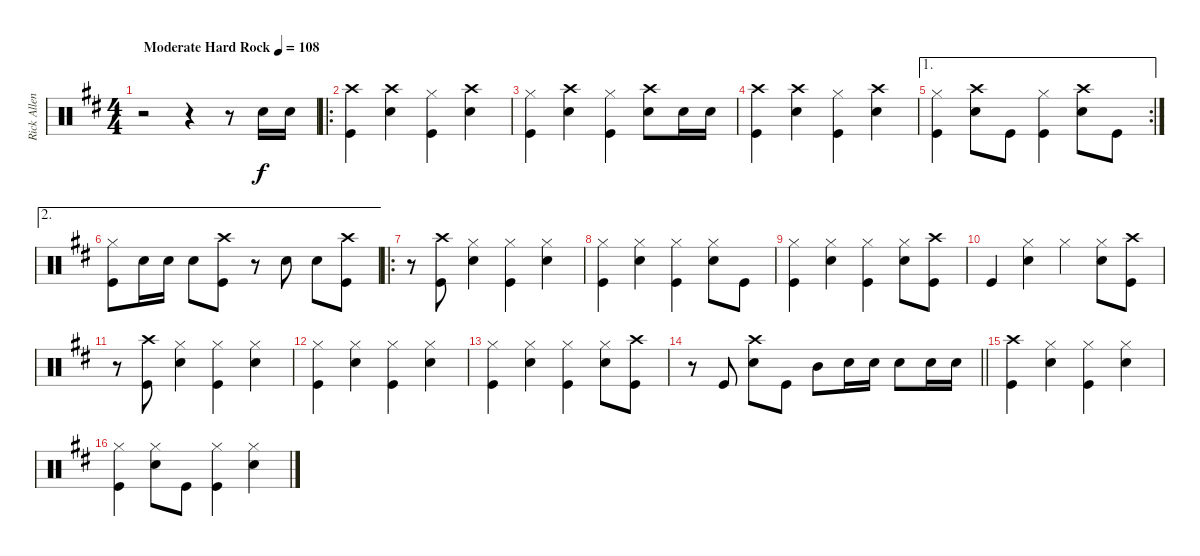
\track ("Rick Allen" "Rick Allen") {instrument percussion}
\staff {score}
\articulation defaults
\ts (4 4)
\tempo (108 "Moderate Hard Rock")
\clef neutral
\ks d
r.2{dy f} r.4 r.8 "Snare (hit) 2".16 "Snare (hit) 2".16 |
\ro
("Crash high (hit)" "Kick (hit)").4 ("Crash high (hit)" "Snare (hit) 2").4 ("Hi-Hat (closed)" "Kick (hit)").4 ("Crash high (hit)" "Snare (hit) 2").4 |
("Hi-Hat (closed)" "Kick (hit)").4 ("Crash high (hit)" "Snare (hit) 2").4 ("Hi-Hat (closed)" "Kick (hit)").4 ("Crash high (hit)" "Snare (hit) 2").8 "Snare (hit) 2".16 "Snare (hit) 2".16 |
("Crash high (hit)" "Kick (hit)").4 ("Crash high (hit)" "Snare (hit) 2").4 ("Hi-Hat (closed)" "Kick (hit)").4 ("Crash high (hit)" "Snare (hit) 2").4 |
\ae 1
\rc 2
("Hi-Hat (closed)" "Kick (hit)").4 ("Crash high (hit)" "Snare (hit) 2").8 "Kick (hit)".8 ("Hi-Hat (closed)" "Kick (hit)").4 ("Crash high (hit)" "Snare (hit) 2").8 "Kick (hit)".8 |
\ae 2
("Hi-Hat (closed)" "Kick (hit)").8 "Snare (hit) 2".16 "Snare (hit) 2".16 "Snare (hit) 2".8 ("Crash high (hit)" "Kick (hit)").8 r.8 "Snare (hit) 2".8 "Snare (hit) 2".8 ("Crash high (hit)" "Kick (hit)").8 |
\ro
r.8 ("Crash high (hit)" "Kick (hit)").8 ("Hi-Hat (closed)" "Snare (hit) 2").4 ("Hi-Hat (closed)" "Kick (hit)").4 ("Hi-Hat (closed)" "Snare (hit) 2").4 |
("Hi-Hat (closed)" "Kick (hit)").4 ("Hi-Hat (closed)" "Snare (hit) 2").4 ("Hi-Hat (closed)" "Kick (hit)").4 ("Hi-Hat (closed)" "Snare (hit) 2").8 "Kick (hit)".8 |
("Hi-Hat (closed)" "Kick (hit)").4 ("Hi-Hat (closed)" "Snare (hit) 2").4 ("Hi-Hat (closed)" "Kick (hit)").4 ("Hi-Hat (closed)" "Snare (hit) 2").8 ("Crash high (hit)" "Kick (hit)").8 |
"Kick (hit)".4 ("Hi-Hat (closed)" "Snare (hit) 2").4 "Hi-Hat (closed)".4 ("Hi-Hat (closed)" "Snare (hit) 2").8 ("Crash high (hit)" "Kick (hit)").8 |
r.8 ("Crash high (hit)" "Kick (hit)").8 ("Hi-Hat (closed)" "Snare (hit) 2").4 ("Hi-Hat (closed)" "Kick (hit)").4 ("Hi-Hat (closed)" "Snare (hit) 2").4 |
("Hi-Hat (closed)" "Kick (hit)").4 ("Hi-Hat (closed)" "Snare (hit) 2").4 ("Hi-Hat (closed)" "Kick (hit)").4 ("Hi-Hat (closed)" "Snare (hit) 2").4 |
("Hi-Hat (closed)" "Kick (hit)").4 ("Hi-Hat (closed)" "Snare (hit) 2").4 ("Hi-Hat (closed)" "Kick (hit)").4 ("Hi-Hat (closed)" "Snare (hit) 2").8 ("Crash high (hit)" "Kick (hit)").8 |
\barLineRight lightlight
r.8 "Kick (hit)".8 ("Crash high (hit)" "Snare (hit) 2").8 "Kick (hit)".8 "Mid Tom (hit)".8 "Snare (hit) 2".16 "Snare (hit) 2".16 "Snare (hit) 2".8 "Snare (hit) 2".16 "Snare (hit) 2".16 |
("Crash high (hit)" "Kick (hit)").4 ("Hi-Hat (closed)" "Snare (hit) 2").4 ("Hi-Hat (closed)" "Kick (hit)").4 ("Hi-Hat (closed)" "Snare (hit) 2").4 |
("Hi-Hat (closed)" "Kick (hit)").4 ("Hi-Hat (closed)" "Snare (hit) 2").8 "Kick (hit)".8 ("Hi-Hat (closed)" "Kick (hit)").4 ("Hi-Hat (closed)" "Snare (hit) 2").4
